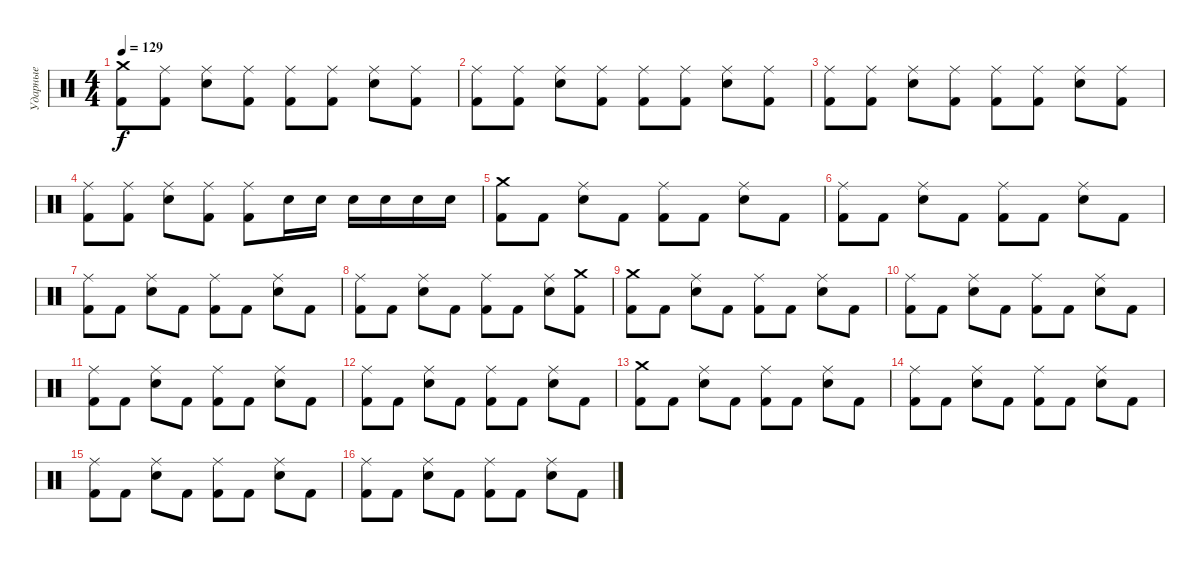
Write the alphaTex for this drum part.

\track ("Ударные" "Ударные") {instrument percussion}
\staff {score}
\articulation defaults
\ts (4 4)
\tempo 129
\clef neutral
\ks c
("Crash medium (hit)" "Kick (hit) 2").8{dy f} ("Ride (middle)" "Kick (hit) 2").8 ("Ride (middle)" "Electric Snare (hit)").8 ("Ride (middle)" "Kick (hit) 2").8 ("Ride (middle)" "Kick (hit) 2").8 ("Ride (middle)" "Kick (hit) 2").8 ("Ride (middle)" "Electric Snare (hit)").8 ("Ride (middle)" "Kick (hit) 2").8 |
("Ride (middle)" "Kick (hit) 2").8 ("Ride (middle)" "Kick (hit) 2").8 ("Ride (middle)" "Electric Snare (hit)").8 ("Ride (middle)" "Kick (hit) 2").8 ("Ride (middle)" "Kick (hit) 2").8 ("Ride (middle)" "Kick (hit) 2").8 ("Ride (middle)" "Electric Snare (hit)").8 ("Ride (middle)" "Kick (hit) 2").8 |
("Ride (middle)" "Kick (hit) 2").8 ("Ride (middle)" "Kick (hit) 2").8 ("Ride (middle)" "Electric Snare (hit)").8 ("Ride (middle)" "Kick (hit) 2").8 ("Ride (middle)" "Kick (hit) 2").8 ("Ride (middle)" "Kick (hit) 2").8 ("Ride (middle)" "Electric Snare (hit)").8 ("Ride (middle)" "Kick (hit) 2").8 |
("Ride (middle)" "Kick (hit) 2").8 ("Ride (middle)" "Kick (hit) 2").8 ("Ride (middle)" "Electric Snare (hit)").8 ("Ride (middle)" "Kick (hit) 2").8 ("Ride (middle)" "Kick (hit) 2").8 "Electric Snare (hit)".16 "Electric Snare (hit)".16 "Electric Snare (hit)".16 "Electric Snare (hit)".16 "Electric Snare (hit)".16 "Electric Snare (hit)".16 |
("Crash medium (hit)" "Kick (hit) 2").8 "Kick (hit) 2".8 ("Ride (middle)" "Electric Snare (hit)").8 "Kick (hit) 2".8 ("Ride (middle)" "Kick (hit) 2").8 "Kick (hit) 2".8 ("Ride (middle)" "Electric Snare (hit)").8 "Kick (hit) 2".8 |
("Ride (middle)" "Kick (hit) 2").8 "Kick (hit) 2".8 ("Ride (middle)" "Electric Snare (hit)").8 "Kick (hit) 2".8 ("Ride (middle)" "Kick (hit) 2").8 "Kick (hit) 2".8 ("Ride (middle)" "Electric Snare (hit)").8 "Kick (hit) 2".8 |
("Ride (middle)" "Kick (hit) 2").8 "Kick (hit) 2".8 ("Ride (middle)" "Electric Snare (hit)").8 "Kick (hit) 2".8 ("Ride (middle)" "Kick (hit) 2").8 "Kick (hit) 2".8 ("Ride (middle)" "Electric Snare (hit)").8 "Kick (hit) 2".8 |
("Ride (middle)" "Kick (hit) 2").8 "Kick (hit) 2".8 ("Ride (middle)" "Electric Snare (hit)").8 "Kick (hit) 2".8 ("Ride (middle)" "Kick (hit) 2").8 "Kick (hit) 2".8 ("Ride (middle)" "Electric Snare (hit)").8 ("Crash medium (hit)" "Kick (hit) 2").8 |
("Crash medium (hit)" "Kick (hit) 2").8 "Kick (hit) 2".8 ("Ride (middle)" "Electric Snare (hit)").8 "Kick (hit) 2".8 ("Ride (middle)" "Kick (hit) 2").8 "Kick (hit) 2".8 ("Ride (middle)" "Electric Snare (hit)").8 "Kick (hit) 2".8 |
("Ride (middle)" "Kick (hit) 2").8 "Kick (hit) 2".8 ("Ride (middle)" "Electric Snare (hit)").8 "Kick (hit) 2".8 ("Ride (middle)" "Kick (hit) 2").8 "Kick (hit) 2".8 ("Ride (middle)" "Electric Snare (hit)").8 "Kick (hit) 2".8 |
("Ride (middle)" "Kick (hit) 2").8 "Kick (hit) 2".8 ("Ride (middle)" "Electric Snare (hit)").8 "Kick (hit) 2".8 ("Ride (middle)" "Kick (hit) 2").8 "Kick (hit) 2".8 ("Ride (middle)" "Electric Snare (hit)").8 "Kick (hit) 2".8 |
("Ride (middle)" "Kick (hit) 2").8 "Kick (hit) 2".8 ("Ride (middle)" "Electric Snare (hit)").8 "Kick (hit) 2".8 ("Ride (middle)" "Kick (hit) 2").8 "Kick (hit) 2".8 ("Ride (middle)" "Electric Snare (hit)").8 "Kick (hit) 2".8 |
("Crash medium (hit)" "Kick (hit) 2").8 "Kick (hit) 2".8 ("Ride (middle)" "Electric Snare (hit)").8 "Kick (hit) 2".8 ("Ride (middle)" "Kick (hit) 2").8 "Kick (hit) 2".8 ("Ride (middle)" "Electric Snare (hit)").8 "Kick (hit) 2".8 |
("Ride (middle)" "Kick (hit) 2").8 "Kick (hit) 2".8 ("Ride (middle)" "Electric Snare (hit)").8 "Kick (hit) 2".8 ("Ride (middle)" "Kick (hit) 2").8 "Kick (hit) 2".8 ("Ride (middle)" "Electric Snare (hit)").8 "Kick (hit) 2".8 |
("Ride (middle)" "Kick (hit) 2").8 "Kick (hit) 2".8 ("Ride (middle)" "Electric Snare (hit)").8 "Kick (hit) 2".8 ("Ride (middle)" "Kick (hit) 2").8 "Kick (hit) 2".8 ("Ride (middle)" "Electric Snare (hit)").8 "Kick (hit) 2".8 |
("Ride (middle)" "Kick (hit) 2").8 "Kick (hit) 2".8 ("Ride (middle)" "Electric Snare (hit)").8 "Kick (hit) 2".8 ("Ride (middle)" "Kick (hit) 2").8 "Kick (hit) 2".8 ("Ride (middle)" "Electric Snare (hit)").8 "Kick (hit) 2".8
